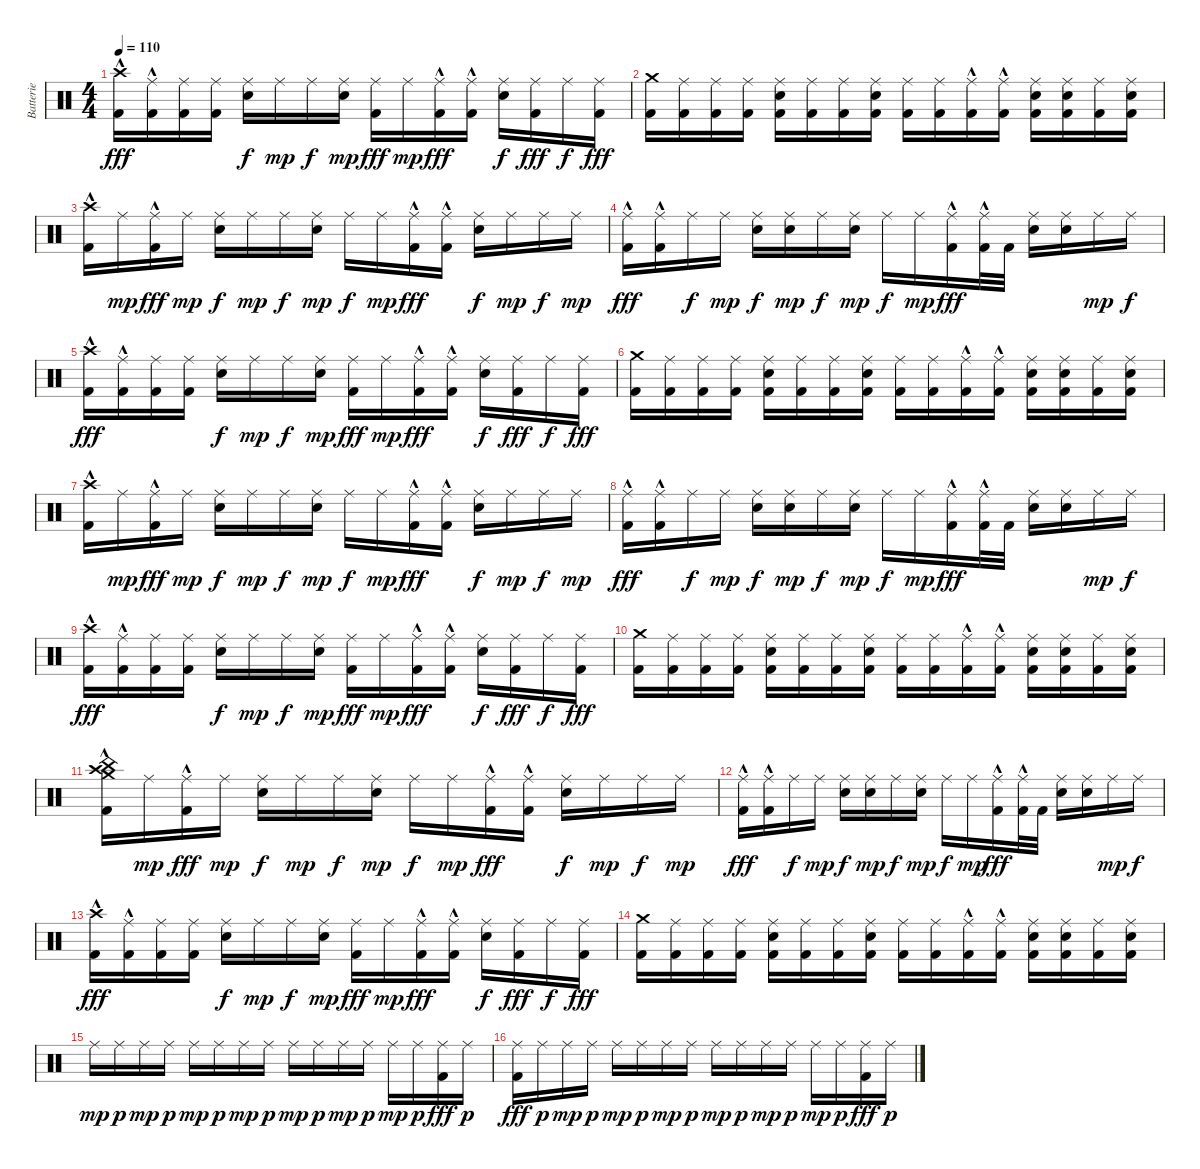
\track ("Batterie" "Batterie") {instrument percussion}
\staff {score}
\articulation defaults
\ts (4 4)
\tempo 110
\clef neutral
\ks c
("Crash high (hit)" "Kick (hit) 2"{hac}).16{dy fff} ("Ride (middle)" "Kick (hit) 2"{hac}).16 ("Ride (middle)" "Kick (hit) 2").16 ("Ride (middle)" "Kick (hit) 2").16 ("Ride (middle)" "Electric Snare (hit)").16{dy f} "Ride (middle)".16{dy mp} "Ride (middle)".16{dy f} ("Ride (middle)" "Electric Snare (hit)").16{dy mp} ("Ride (middle)" "Kick (hit) 2").16{dy fff} "Ride (middle)".16{dy mp} ("Ride (middle)" "Kick (hit) 2"{hac}).16{dy fff} ("Ride (middle)" "Kick (hit) 2"{hac}).16 ("Ride (middle)" "Electric Snare (hit)").16{dy f} ("Ride (middle)" "Kick (hit) 2").16{dy fff} "Ride (middle)".16{dy f} ("Ride (middle)" "Kick (hit) 2").16{dy fff} |
("Crash medium (hit)" "Kick (hit) 2").16 ("Ride (middle)" "Kick (hit) 2").16 ("Ride (middle)" "Kick (hit) 2").16 ("Ride (middle)" "Kick (hit) 2").16 ("Ride (middle)" "Electric Snare (hit)" "Kick (hit) 2").16 ("Ride (middle)" "Kick (hit) 2").16 ("Ride (middle)" "Kick (hit) 2").16 ("Ride (middle)" "Electric Snare (hit)" "Kick (hit) 2").16 ("Ride (middle)" "Kick (hit) 2").16 ("Ride (middle)" "Kick (hit) 2").16 ("Ride (middle)" "Kick (hit) 2"{hac}).16 ("Ride (middle)" "Kick (hit) 2"{hac}).16 ("Ride (middle)" "Electric Snare (hit)" "Kick (hit) 2").16 ("Ride (middle)" "Electric Snare (hit)" "Kick (hit) 2").16 ("Ride (middle)" "Kick (hit) 2").16 ("Ride (middle)" "Electric Snare (hit)" "Kick (hit) 2").16 |
("Crash high (hit)" "Kick (hit) 2"{hac}).16 "Ride (middle)".16{dy mp} ("Ride (middle)" "Kick (hit) 2"{hac}).16{dy fff} "Ride (middle)".16{dy mp} ("Ride (middle)" "Electric Snare (hit)").16{dy f} "Ride (middle)".16{dy mp} "Ride (middle)".16{dy f} ("Ride (middle)" "Electric Snare (hit)").16{dy mp} "Ride (middle)".16{dy f} "Ride (middle)".16{dy mp} ("Ride (middle)" "Kick (hit) 2"{hac}).16{dy fff} ("Ride (middle)" "Kick (hit) 2"{hac}).16 ("Ride (middle)" "Electric Snare (hit)").16{dy f} "Ride (middle)".16{dy mp} "Ride (middle)".16{dy f} "Ride (middle)".16{dy mp} |
("Ride (middle)" "Kick (hit) 2"{hac}).16{dy fff} ("Ride (middle)" "Kick (hit) 2"{hac}).16 "Ride (middle)".16{dy f} "Ride (middle)".16{dy mp} ("Ride (middle)" "Electric Snare (hit)").16{dy f} ("Ride (middle)" "Electric Snare (hit)").16{dy mp} "Ride (middle)".16{dy f} ("Ride (middle)" "Electric Snare (hit)").16{dy mp} "Ride (middle)".16{dy f} "Ride (middle)".16{dy mp} ("Ride (middle)" "Kick (hit) 2"{hac}).16{dy fff} ("Ride (middle)" "Kick (hit) 2"{hac}).32 "Kick (hit) 2".32 ("Ride (middle)" "Electric Snare (hit)").16 ("Ride (middle)" "Electric Snare (hit)").16 "Ride (middle)".16{dy mp} "Ride (middle)".16{dy f} |
("Crash high (hit)" "Kick (hit) 2"{hac}).16{dy fff} ("Ride (middle)" "Kick (hit) 2"{hac}).16 ("Ride (middle)" "Kick (hit) 2").16 ("Ride (middle)" "Kick (hit) 2").16 ("Ride (middle)" "Electric Snare (hit)").16{dy f} "Ride (middle)".16{dy mp} "Ride (middle)".16{dy f} ("Ride (middle)" "Electric Snare (hit)").16{dy mp} ("Ride (middle)" "Kick (hit) 2").16{dy fff} "Ride (middle)".16{dy mp} ("Ride (middle)" "Kick (hit) 2"{hac}).16{dy fff} ("Ride (middle)" "Kick (hit) 2"{hac}).16 ("Ride (middle)" "Electric Snare (hit)").16{dy f} ("Ride (middle)" "Kick (hit) 2").16{dy fff} "Ride (middle)".16{dy f} ("Ride (middle)" "Kick (hit) 2").16{dy fff} |
("Crash medium (hit)" "Kick (hit) 2").16 ("Ride (middle)" "Kick (hit) 2").16 ("Ride (middle)" "Kick (hit) 2").16 ("Ride (middle)" "Kick (hit) 2").16 ("Ride (middle)" "Electric Snare (hit)" "Kick (hit) 2").16 ("Ride (middle)" "Kick (hit) 2").16 ("Ride (middle)" "Kick (hit) 2").16 ("Ride (middle)" "Electric Snare (hit)" "Kick (hit) 2").16 ("Ride (middle)" "Kick (hit) 2").16 ("Ride (middle)" "Kick (hit) 2").16 ("Ride (middle)" "Kick (hit) 2"{hac}).16 ("Ride (middle)" "Kick (hit) 2"{hac}).16 ("Ride (middle)" "Electric Snare (hit)" "Kick (hit) 2").16 ("Ride (middle)" "Electric Snare (hit)" "Kick (hit) 2").16 ("Ride (middle)" "Kick (hit) 2").16 ("Ride (middle)" "Electric Snare (hit)" "Kick (hit) 2").16 |
("Crash high (hit)" "Kick (hit) 2"{hac}).16 "Ride (middle)".16{dy mp} ("Ride (middle)" "Kick (hit) 2"{hac}).16{dy fff} "Ride (middle)".16{dy mp} ("Ride (middle)" "Electric Snare (hit)").16{dy f} "Ride (middle)".16{dy mp} "Ride (middle)".16{dy f} ("Ride (middle)" "Electric Snare (hit)").16{dy mp} "Ride (middle)".16{dy f} "Ride (middle)".16{dy mp} ("Ride (middle)" "Kick (hit) 2"{hac}).16{dy fff} ("Ride (middle)" "Kick (hit) 2"{hac}).16 ("Ride (middle)" "Electric Snare (hit)").16{dy f} "Ride (middle)".16{dy mp} "Ride (middle)".16{dy f} "Ride (middle)".16{dy mp} |
("Ride (middle)" "Kick (hit) 2"{hac}).16{dy fff} ("Ride (middle)" "Kick (hit) 2"{hac}).16 "Ride (middle)".16{dy f} "Ride (middle)".16{dy mp} ("Ride (middle)" "Electric Snare (hit)").16{dy f} ("Ride (middle)" "Electric Snare (hit)").16{dy mp} "Ride (middle)".16{dy f} ("Ride (middle)" "Electric Snare (hit)").16{dy mp} "Ride (middle)".16{dy f} "Ride (middle)".16{dy mp} ("Ride (middle)" "Kick (hit) 2"{hac}).16{dy fff} ("Ride (middle)" "Kick (hit) 2"{hac}).32 "Kick (hit) 2".32 ("Ride (middle)" "Electric Snare (hit)").16 ("Ride (middle)" "Electric Snare (hit)").16 "Ride (middle)".16{dy mp} "Ride (middle)".16{dy f} |
("Crash high (hit)" "Kick (hit) 2"{hac}).16{dy fff} ("Ride (middle)" "Kick (hit) 2"{hac}).16 ("Ride (middle)" "Kick (hit) 2").16 ("Ride (middle)" "Kick (hit) 2").16 ("Ride (middle)" "Electric Snare (hit)").16{dy f} "Ride (middle)".16{dy mp} "Ride (middle)".16{dy f} ("Ride (middle)" "Electric Snare (hit)").16{dy mp} ("Ride (middle)" "Kick (hit) 2").16{dy fff} "Ride (middle)".16{dy mp} ("Ride (middle)" "Kick (hit) 2"{hac}).16{dy fff} ("Ride (middle)" "Kick (hit) 2"{hac}).16 ("Ride (middle)" "Electric Snare (hit)").16{dy f} ("Ride (middle)" "Kick (hit) 2").16{dy fff} "Ride (middle)".16{dy f} ("Ride (middle)" "Kick (hit) 2").16{dy fff} |
("Crash medium (hit)" "Kick (hit) 2").16 ("Ride (middle)" "Kick (hit) 2").16 ("Ride (middle)" "Kick (hit) 2").16 ("Ride (middle)" "Kick (hit) 2").16 ("Ride (middle)" "Electric Snare (hit)" "Kick (hit) 2").16 ("Ride (middle)" "Kick (hit) 2").16 ("Ride (middle)" "Kick (hit) 2").16 ("Ride (middle)" "Electric Snare (hit)" "Kick (hit) 2").16 ("Ride (middle)" "Kick (hit) 2").16 ("Ride (middle)" "Kick (hit) 2").16 ("Ride (middle)" "Kick (hit) 2"{hac}).16 ("Ride (middle)" "Kick (hit) 2"{hac}).16 ("Ride (middle)" "Electric Snare (hit)" "Kick (hit) 2").16 ("Ride (middle)" "Electric Snare (hit)" "Kick (hit) 2").16 ("Ride (middle)" "Kick (hit) 2").16 ("Ride (middle)" "Electric Snare (hit)" "Kick (hit) 2").16 |
("Crash high (hit)" "Crash medium (hit)" "Kick (hit) 2"{hac} "China (hit)").16 "Ride (middle)".16{dy mp} ("Ride (middle)" "Kick (hit) 2"{hac}).16{dy fff} "Ride (middle)".16{dy mp} ("Ride (middle)" "Electric Snare (hit)").16{dy f} "Ride (middle)".16{dy mp} "Ride (middle)".16{dy f} ("Ride (middle)" "Electric Snare (hit)").16{dy mp} "Ride (middle)".16{dy f} "Ride (middle)".16{dy mp} ("Ride (middle)" "Kick (hit) 2"{hac}).16{dy fff} ("Ride (middle)" "Kick (hit) 2"{hac}).16 ("Ride (middle)" "Electric Snare (hit)").16{dy f} "Ride (middle)".16{dy mp} "Ride (middle)".16{dy f} "Ride (middle)".16{dy mp} |
("Ride (middle)" "Kick (hit) 2"{hac}).16{dy fff} ("Ride (middle)" "Kick (hit) 2"{hac}).16 "Ride (middle)".16{dy f} "Ride (middle)".16{dy mp} ("Ride (middle)" "Electric Snare (hit)").16{dy f} ("Ride (middle)" "Electric Snare (hit)").16{dy mp} "Ride (middle)".16{dy f} ("Ride (middle)" "Electric Snare (hit)").16{dy mp} "Ride (middle)".16{dy f} "Ride (middle)".16{dy mp} ("Ride (middle)" "Kick (hit) 2"{hac}).16{dy fff} ("Ride (middle)" "Kick (hit) 2"{hac}).32 "Kick (hit) 2".32 ("Ride (middle)" "Electric Snare (hit)").16 ("Ride (middle)" "Electric Snare (hit)").16 "Ride (middle)".16{dy mp} "Ride (middle)".16{dy f} |
("Crash high (hit)" "Kick (hit) 2"{hac}).16{dy fff} ("Ride (middle)" "Kick (hit) 2"{hac}).16 ("Ride (middle)" "Kick (hit) 2").16 ("Ride (middle)" "Kick (hit) 2").16 ("Ride (middle)" "Electric Snare (hit)").16{dy f} "Ride (middle)".16{dy mp} "Ride (middle)".16{dy f} ("Ride (middle)" "Electric Snare (hit)").16{dy mp} ("Ride (middle)" "Kick (hit) 2").16{dy fff} "Ride (middle)".16{dy mp} ("Ride (middle)" "Kick (hit) 2"{hac}).16{dy fff} ("Ride (middle)" "Kick (hit) 2"{hac}).16 ("Ride (middle)" "Electric Snare (hit)").16{dy f} ("Ride (middle)" "Kick (hit) 2").16{dy fff} "Ride (middle)".16{dy f} ("Ride (middle)" "Kick (hit) 2").16{dy fff} |
("Crash medium (hit)" "Kick (hit) 2").16 ("Ride (middle)" "Kick (hit) 2").16 ("Ride (middle)" "Kick (hit) 2").16 ("Ride (middle)" "Kick (hit) 2").16 ("Ride (middle)" "Electric Snare (hit)" "Kick (hit) 2").16 ("Ride (middle)" "Kick (hit) 2").16 ("Ride (middle)" "Kick (hit) 2").16 ("Ride (middle)" "Electric Snare (hit)" "Kick (hit) 2").16 ("Ride (middle)" "Kick (hit) 2").16 ("Ride (middle)" "Kick (hit) 2").16 ("Ride (middle)" "Kick (hit) 2"{hac}).16 ("Ride (middle)" "Kick (hit) 2"{hac}).16 ("Ride (middle)" "Electric Snare (hit)" "Kick (hit) 2").16 ("Ride (middle)" "Electric Snare (hit)" "Kick (hit) 2").16 ("Ride (middle)" "Kick (hit) 2").16 ("Ride (middle)" "Electric Snare (hit)" "Kick (hit) 2").16 |
"Ride (middle)".16{dy mp} "Ride (middle)".16{dy p} "Ride (middle)".16{dy mp} "Ride (middle)".16{dy p} "Ride (middle)".16{dy mp} "Ride (middle)".16{dy p} "Ride (middle)".16{dy mp} "Ride (middle)".16{dy p} "Ride (middle)".16{dy mp} "Ride (middle)".16{dy p} "Ride (middle)".16{dy mp} "Ride (middle)".16{dy p} "Ride (middle)".16{dy mp} "Ride (middle)".16{dy p} ("Ride (middle)" "Kick (hit) 2").16{dy fff} "Ride (middle)".16{dy p} |
("Ride (middle)" "Kick (hit) 2").16{dy fff} "Ride (middle)".16{dy p} "Ride (middle)".16{dy mp} "Ride (middle)".16{dy p} "Ride (middle)".16{dy mp} "Ride (middle)".16{dy p} "Ride (middle)".16{dy mp} "Ride (middle)".16{dy p} "Ride (middle)".16{dy mp} "Ride (middle)".16{dy p} "Ride (middle)".16{dy mp} "Ride (middle)".16{dy p} "Ride (middle)".16{dy mp} "Ride (middle)".16{dy p} ("Ride (middle)" "Kick (hit) 2").16{dy fff} "Ride (middle)".16{dy p}
